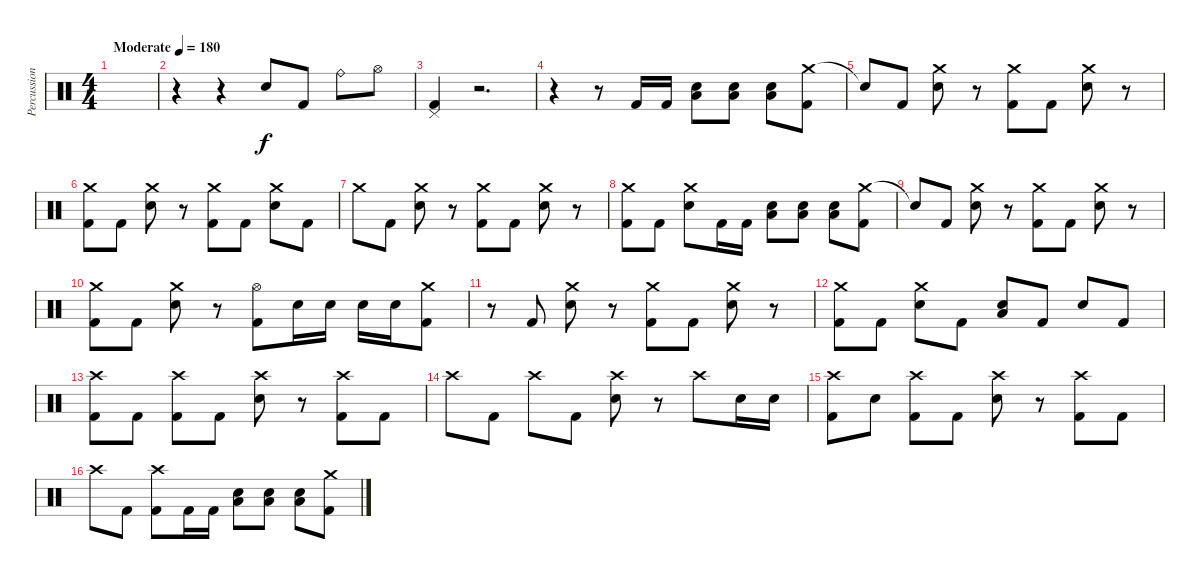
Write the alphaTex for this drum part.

\track ("Percussion" "Percussion") {instrument percussion}
\staff {score}
\articulation defaults
\ts (4 4)
\tempo (180 "Moderate")
\clef neutral
\ks c
|
r.4 r.4 "Snare (hit) 2".8 "Kick (hit) 2".8 "Ride (bell)".8 "Hi-Hat (open)".8 |
("Pedal Hi-Hat (hit)" "Kick (hit) 2").4 r.2{d} |
r.4 r.8 "Kick (hit) 2".16 "Kick (hit) 2".16 ("Low Floor Tom (hit)" "Snare (hit) 2").8 ("Low Floor Tom (hit)" "Snare (hit) 2").8 ("Low Floor Tom (hit)" "Snare (hit) 2").8 ("Crash medium (hit)" "Kick (hit) 2").8 |
"Snare (hit)"{t}.8 "Kick (hit) 2".8 ("Crash medium (hit)" "Snare (hit) 2").8 r.8 ("Crash medium (hit)" "Kick (hit) 2").8 "Kick (hit) 2".8 ("Crash medium (hit)" "Snare (hit) 2").8 r.8 |
("Crash medium (hit)" "Kick (hit) 2").8 "Kick (hit) 2".8 ("Crash medium (hit)" "Snare (hit) 2").8 r.8 ("Crash medium (hit)" "Kick (hit) 2").8 "Kick (hit) 2".8 ("Crash medium (hit)" "Snare (hit) 2").8 "Kick (hit) 2".8 |
"Crash medium (hit)".8 "Kick (hit) 2".8 ("Crash medium (hit)" "Snare (hit) 2").8 r.8 ("Crash medium (hit)" "Kick (hit) 2").8 "Kick (hit) 2".8 ("Crash medium (hit)" "Snare (hit) 2").8 r.8 |
("Crash medium (hit)" "Kick (hit) 2").8 "Kick (hit) 2".8 ("Crash medium (hit)" "Snare (hit) 2").8 "Kick (hit) 2".16 "Kick (hit) 2".16 ("Low Floor Tom (hit)" "Snare (hit) 2").8 ("Low Floor Tom (hit)" "Snare (hit) 2").8 ("Low Floor Tom (hit)" "Snare (hit) 2").8 ("Crash medium (hit)" "Kick (hit) 2").8 |
"Snare (hit)"{t}.8 "Kick (hit) 2".8 ("Crash medium (hit)" "Snare (hit) 2").8 r.8 ("Crash medium (hit)" "Kick (hit) 2").8 "Kick (hit) 2".8 ("Crash medium (hit)" "Snare (hit) 2").8 r.8 |
("Crash medium (hit)" "Kick (hit) 2").8 "Kick (hit) 2".8 ("Crash medium (hit)" "Snare (hit) 2").8 r.8 ("Hi-Hat (open)" "Kick (hit) 2").8 "Snare (hit) 2".16 "Snare (hit) 2".16 "Snare (hit) 2".16 "Snare (hit) 2".16 ("Crash medium (hit)" "Kick (hit) 2").8 |
r.8 "Kick (hit) 2".8 ("Crash medium (hit)" "Snare (hit) 2").8 r.8 ("Crash medium (hit)" "Kick (hit) 2").8 "Kick (hit) 2".8 ("Crash medium (hit)" "Snare (hit) 2").8 r.8 |
("Crash medium (hit)" "Kick (hit) 2").8 "Kick (hit) 2".8 ("Crash medium (hit)" "Snare (hit) 2").8 "Kick (hit) 2".8 ("Low Floor Tom (hit)" "Snare (hit) 2").8 "Kick (hit) 2".8 "Snare (hit) 2".8 "Kick (hit) 2".8 |
("Crash high (hit)" "Kick (hit) 2").8 "Kick (hit) 2".8 ("Crash high (hit)" "Kick (hit) 2").8 "Kick (hit) 2".8 ("Crash high (hit)" "Snare (hit) 2").8 r.8 ("Crash high (hit)" "Kick (hit) 2").8 "Kick (hit) 2".8 |
"Crash high (hit)".8 "Kick (hit) 2".8 "Crash high (hit)".8 "Kick (hit) 2".8 ("Crash high (hit)" "Snare (hit) 2").8 r.8 "Crash high (hit)".8 "Snare (hit) 2".16 "Snare (hit) 2".16 |
("Crash high (hit)" "Kick (hit) 2").8 "Snare (hit) 2".8 ("Crash high (hit)" "Kick (hit) 2").8 "Kick (hit) 2".8 ("Crash high (hit)" "Snare (hit) 2").8 r.8 ("Crash high (hit)" "Kick (hit) 2").8 "Kick (hit) 2".8 |
"Crash high (hit)".8 "Kick (hit) 2".8 ("Crash high (hit)" "Kick (hit) 2").8 "Kick (hit) 2".16 "Kick (hit) 2".16 ("Low Floor Tom (hit)" "Snare (hit) 2").8 ("Low Floor Tom (hit)" "Snare (hit) 2").8 ("Low Floor Tom (hit)" "Snare (hit) 2").8 ("Crash medium (hit)" "Kick (hit) 2").8
